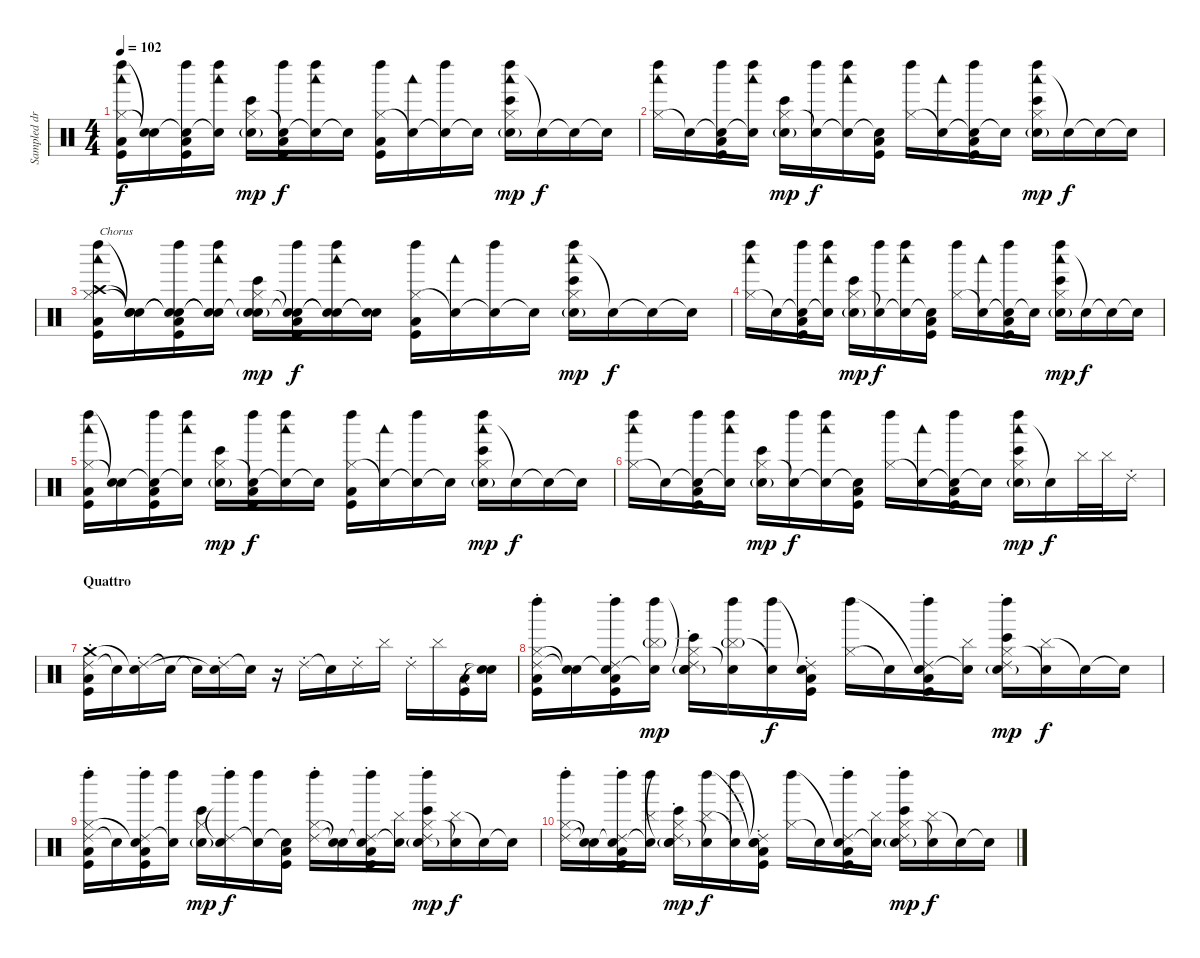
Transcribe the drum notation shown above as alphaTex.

\track ("Sampled drums (Rob and Joe)" "Sampled dr") {instrument percussion}
\staff {score}
\articulation defaults
\ts (4 4)
\tempo 102
\clef neutral
\ks c
("Hi-Hat (closed)" "Left Maraca (hit)" "Woodblock low (hit)" "Low Floor Tom (hit)" "Kick (hit)").16{dy f} ("Snare (hit)"{t} "Snare (hit)"{t}).16 ("Snare (hit)"{t} "Left Maraca (hit)" "Low Floor Tom (hit)" "Kick (hit)").16 ("Snare (hit)"{t} "Left Maraca (hit)" "Woodblock low (hit)").16 ("Hi-Hat (closed)" "Bongo High (hit)" "Electric Snare (hit)"{g}).16{dy mp} ("Snare (hit)"{t} "Left Maraca (hit)" "Low Floor Tom (hit)" "Kick (hit)").16{dy f} ("Snare (hit)"{t} "Left Maraca (hit)" "Woodblock low (hit)").16 "Snare (hit)"{t}.16 ("Hi-Hat (closed)" "Left Maraca (hit)" "Low Floor Tom (hit)" "Kick (hit)").16 ("Snare (hit)"{t} "Woodblock low (hit)").16 ("Snare (hit)"{t} "Left Maraca (hit)").16 "Snare (hit)"{t}.16 ("Woodblock low (hit)" "Hi-Hat (closed)" "Left Maraca (hit)" "Bongo High (hit)" "Electric Snare (hit)"{g}).16{dy mp} "Snare (hit)"{t}.16{dy f} "Snare (hit)"{t}.16 "Snare (hit)"{t}.16 |
("Hi-Hat (closed)" "Left Maraca (hit)" "Woodblock low (hit)").16 "Snare (hit)"{t}.16 ("Snare (hit)"{t} "Left Maraca (hit)" "Low Floor Tom (hit)" "Kick (hit)").16 ("Snare (hit)"{t} "Left Maraca (hit)" "Woodblock low (hit)").16 ("Hi-Hat (closed)" "Bongo High (hit)" "Electric Snare (hit)"{g}).16{dy mp} ("Snare (hit)"{t} "Left Maraca (hit)").16{dy f} ("Snare (hit)"{t} "Left Maraca (hit)" "Woodblock low (hit)").16 ("Snare (hit)"{t} "Low Floor Tom (hit)" "Kick (hit)").16 ("Hi-Hat (closed)" "Left Maraca (hit)").16 ("Snare (hit)"{t} "Woodblock low (hit)").16 ("Snare (hit)"{t} "Left Maraca (hit)" "Low Floor Tom (hit)" "Kick (hit)").16 "Snare (hit)"{t}.16 ("Woodblock low (hit)" "Hi-Hat (closed)" "Left Maraca (hit)" "Bongo High (hit)" "Electric Snare (hit)"{g}).16{dy mp} "Snare (hit)"{t}.16{dy f} "Snare (hit)"{t}.16 "Snare (hit)"{t}.16 |
("Crash high (hit)" "Hi-Hat (closed)" "Left Maraca (hit)" "Woodblock low (hit)" "Low Floor Tom (hit)" "Kick (hit)").16{txt "Chorus"} ("Snare (hit)"{t} "Snare (hit)"{t} "Snare (hit)"{t}).16 ("Snare (hit)"{t} "Snare (hit)"{t} "Left Maraca (hit)" "Low Floor Tom (hit)" "Kick (hit)").16 ("Snare (hit)"{t} "Snare (hit)"{t} "Left Maraca (hit)" "Woodblock low (hit)").16 ("Snare (hit)"{t} "Hi-Hat (closed)" "Bongo High (hit)" "Electric Snare (hit)"{g}).16{dy mp} ("Snare (hit)"{t} "Snare (hit)"{t} "Left Maraca (hit)" "Low Floor Tom (hit)" "Kick (hit)").16{dy f} ("Snare (hit)"{t} "Snare (hit)"{t} "Left Maraca (hit)" "Woodblock low (hit)").16 ("Snare (hit)"{t} "Snare (hit)"{t}).16 ("Hi-Hat (closed)" "Left Maraca (hit)" "Low Floor Tom (hit)" "Kick (hit)").16 ("Snare (hit)"{t} "Woodblock low (hit)").16 ("Snare (hit)"{t} "Left Maraca (hit)").16 "Snare (hit)"{t}.16 ("Woodblock low (hit)" "Hi-Hat (closed)" "Left Maraca (hit)" "Bongo High (hit)" "Electric Snare (hit)"{g}).16{dy mp} "Snare (hit)"{t}.16{dy f} "Snare (hit)"{t}.16 "Snare (hit)"{t}.16 |
("Hi-Hat (closed)" "Left Maraca (hit)" "Woodblock low (hit)").16 "Snare (hit)"{t}.16 ("Snare (hit)"{t} "Left Maraca (hit)" "Low Floor Tom (hit)" "Kick (hit)").16 ("Snare (hit)"{t} "Left Maraca (hit)" "Woodblock low (hit)").16 ("Hi-Hat (closed)" "Bongo High (hit)" "Electric Snare (hit)"{g}).16{dy mp} ("Snare (hit)"{t} "Left Maraca (hit)").16{dy f} ("Snare (hit)"{t} "Left Maraca (hit)" "Woodblock low (hit)").16 ("Snare (hit)"{t} "Low Floor Tom (hit)" "Kick (hit)").16 ("Hi-Hat (closed)" "Left Maraca (hit)").16 ("Snare (hit)"{t} "Woodblock low (hit)").16 ("Snare (hit)"{t} "Left Maraca (hit)" "Low Floor Tom (hit)" "Kick (hit)").16 "Snare (hit)"{t}.16 ("Woodblock low (hit)" "Hi-Hat (closed)" "Left Maraca (hit)" "Bongo High (hit)" "Electric Snare (hit)"{g}).16{dy mp} "Snare (hit)"{t}.16{dy f} "Snare (hit)"{t}.16 "Snare (hit)"{t}.16 |
("Hi-Hat (closed)" "Left Maraca (hit)" "Woodblock low (hit)" "Low Floor Tom (hit)" "Kick (hit)").16 ("Snare (hit)"{t} "Snare (hit)"{t}).16 ("Snare (hit)"{t} "Left Maraca (hit)" "Low Floor Tom (hit)" "Kick (hit)").16 ("Snare (hit)"{t} "Left Maraca (hit)" "Woodblock low (hit)").16 ("Hi-Hat (closed)" "Bongo High (hit)" "Electric Snare (hit)"{g}).16{dy mp} ("Snare (hit)"{t} "Left Maraca (hit)" "Low Floor Tom (hit)" "Kick (hit)").16{dy f} ("Snare (hit)"{t} "Left Maraca (hit)" "Woodblock low (hit)").16 "Snare (hit)"{t}.16 ("Hi-Hat (closed)" "Left Maraca (hit)" "Low Floor Tom (hit)" "Kick (hit)").16 ("Snare (hit)"{t} "Woodblock low (hit)").16 ("Snare (hit)"{t} "Left Maraca (hit)").16 "Snare (hit)"{t}.16 ("Woodblock low (hit)" "Hi-Hat (closed)" "Left Maraca (hit)" "Bongo High (hit)" "Electric Snare (hit)"{g}).16{dy mp} "Snare (hit)"{t}.16{dy f} "Snare (hit)"{t}.16 "Snare (hit)"{t}.16 |
("Hi-Hat (closed)" "Left Maraca (hit)" "Woodblock low (hit)").16 "Snare (hit)"{t}.16 ("Snare (hit)"{t} "Left Maraca (hit)" "Low Floor Tom (hit)" "Kick (hit)").16 ("Snare (hit)"{t} "Left Maraca (hit)" "Woodblock low (hit)").16 ("Hi-Hat (closed)" "Bongo High (hit)" "Electric Snare (hit)"{g}).16{dy mp} ("Snare (hit)"{t} "Left Maraca (hit)").16{dy f} ("Snare (hit)"{t} "Left Maraca (hit)" "Woodblock low (hit)").16 ("Snare (hit)"{t} "Low Floor Tom (hit)" "Kick (hit)").16 ("Hi-Hat (closed)" "Left Maraca (hit)").16 ("Snare (hit)"{t} "Woodblock low (hit)").16 ("Snare (hit)"{t} "Left Maraca (hit)" "Low Floor Tom (hit)" "Kick (hit)").16 "Snare (hit)"{t}.16 ("Woodblock low (hit)" "Hi-Hat (closed)" "Left Maraca (hit)" "Bongo High (hit)" "Electric Snare (hit)"{g}).16{dy mp} "Snare (hit)"{t}.16{dy f} "Cymbal (hit)".32{volume 16} "Cymbal (hit)".32 "Ride (choke) 2".16 |
\section ("" "Quattro")
("Ride (choke) 2" "Crash medium (hit)" "Low Floor Tom (hit)" "Kick (hit)").16{volume 10} "Snare (hit)"{t}.16 ("Ride (choke) 2" "Snare (hit)"{t}).16 "Snare (hit)"{t}.16 "Snare (hit)"{t}.16 ("Ride (choke) 2" "Snare (hit)"{t}).16 "Snare (hit)"{t}.16 r.16 "Ride (choke) 2".16 "Snare (hit)"{t}.16 "Ride (choke) 2".16 "Cymbal (hit)".16 "Ride (choke) 2".16 "Cymbal (hit)".16 ("Low Floor Tom (hit)" "Kick (hit)").16 ("Snare (hit)"{t} "Snare (hit)"{t}).16 |
("Ride (choke) 2" "Hi-Hat (closed)" "Left Maraca (hit)" "Low Floor Tom (hit)" "Kick (hit)").16{volume 10} ("Snare (hit)"{t} "Snare (hit)"{t}).16 ("Ride (choke) 2" "Snare (hit)"{t} "Left Maraca (hit)" "Low Floor Tom (hit)" "Kick (hit)").16 ("Cymbal (hit)"{g} "Snare (hit)"{t} "Left Maraca (hit)").16{dy mp} ("Ride (choke) 2" "Hi-Hat (closed)" "Snare (hit)"{t} "Bongo High (hit)" "Electric Snare (hit)"{g}).16 ("Cymbal (hit)"{g} "Snare (hit)"{t} "Left Maraca (hit)").16 ("Snare (hit)"{t} "Left Maraca (hit)").16{dy f} ("Ride (choke) 2" "Snare (hit)"{t} "Low Floor Tom (hit)" "Kick (hit)").16 ("Hi-Hat (closed)" "Left Maraca (hit)").16 "Snare (hit)"{t}.16 ("Ride (choke) 2" "Snare (hit)"{t} "Left Maraca (hit)" "Low Floor Tom (hit)" "Kick (hit)").16 ("Cymbal (hit)" "Snare (hit)"{t}).16 ("Ride (choke) 2" "Hi-Hat (closed)" "Left Maraca (hit)" "Bongo High (hit)" "Electric Snare (hit)"{g}).16{dy mp} ("Cymbal (hit)" "Snare (hit)"{t}).16{dy f} "Snare (hit)"{t}.16 "Snare (hit)"{t}.16 |
("Ride (choke) 2" "Hi-Hat (closed)" "Left Maraca (hit)" "Low Floor Tom (hit)" "Kick (hit)").16{volume 10} "Snare (hit)"{t}.16 ("Ride (choke) 2" "Snare (hit)"{t} "Left Maraca (hit)" "Low Floor Tom (hit)" "Kick (hit)").16 ("Snare (hit)"{t} "Left Maraca (hit)").16 ("Hi-Hat (closed)" "Bongo High (hit)" "Electric Snare (hit)"{g}).16{dy mp} ("Ride (choke) 2" "Snare (hit)"{t} "Left Maraca (hit)").16{dy f} ("Snare (hit)"{t} "Left Maraca (hit)").16 ("Snare (hit)"{t} "Low Floor Tom (hit)" "Kick (hit)").16 ("Ride (choke) 2" "Hi-Hat (closed)" "Left Maraca (hit)").16 ("Snare (hit)"{t} "Snare (hit)"{t}).16 ("Ride (choke) 2" "Snare (hit)"{t} "Left Maraca (hit)" "Low Floor Tom (hit)" "Kick (hit)").16 ("Cymbal (hit)" "Snare (hit)"{t}).16 ("Ride (choke) 2" "Hi-Hat (closed)" "Left Maraca (hit)" "Bongo High (hit)" "Electric Snare (hit)"{g}).16{dy mp} ("Cymbal (hit)" "Snare (hit)"{t}).16{dy f} "Snare (hit)"{t}.16 "Snare (hit)"{t}.16 |
("Ride (choke) 2" "Hi-Hat (closed)" "Left Maraca (hit)").16{volume 10} ("Snare (hit)"{t} "Snare (hit)"{t}).16 ("Ride (choke) 2" "Snare (hit)"{t} "Left Maraca (hit)" "Low Floor Tom (hit)" "Kick (hit)").16 ("Cymbal (hit)" "Snare (hit)"{t} "Left Maraca (hit)").16 ("Ride (choke) 2" "Hi-Hat (closed)" "Snare (hit)"{t} "Bongo High (hit)" "Electric Snare (hit)"{g}).16{dy mp} ("Cymbal (hit)" "Snare (hit)"{t} "Left Maraca (hit)").16{dy f} ("Snare (hit)"{t} "Left Maraca (hit)").16 ("Ride (choke) 2" "Snare (hit)"{t} "Snare (hit)"{t} "Low Floor Tom (hit)" "Kick (hit)").16 ("Hi-Hat (closed)" "Left Maraca (hit)").16 "Snare (hit)"{t}.16 ("Ride (choke) 2" "Snare (hit)"{t} "Left Maraca (hit)" "Low Floor Tom (hit)" "Kick (hit)").16 ("Cymbal (hit)" "Snare (hit)"{t}).16 ("Ride (choke) 2" "Hi-Hat (closed)" "Left Maraca (hit)" "Bongo High (hit)" "Electric Snare (hit)"{g}).16{dy mp} ("Cymbal (hit)" "Snare (hit)"{t}).16{dy f} "Snare (hit)"{t}.16 "Snare (hit)"{t}.16
